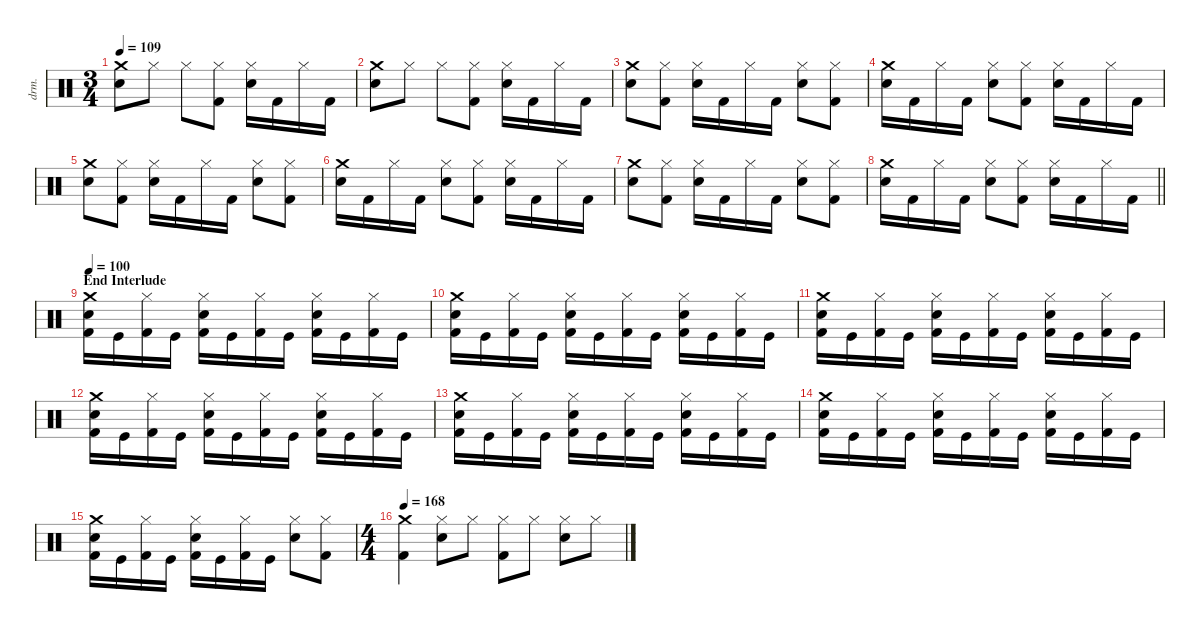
\defaultSystemsLayout 4
\hideDynamics
\bracketExtendMode nobrackets
\otherSystemsTrackNameOrientation horizontal
\track ("Drums" "drm.") {instrument percussion}
\staff {score}
\articulation defaults
\ts (3 4)
\tempo 109
\clef neutral
\ks c
("Snare (hit) 2" "Crash medium (hit)").8{dy fff} "Hi-Hat (closed)".8 "Hi-Hat (closed)".8 ("Kick (hit) 2" "Hi-Hat (closed)").8 ("Snare (hit) 2" "Hi-Hat (closed)").16 "Kick (hit) 2".16 "Hi-Hat (closed)".16 "Kick (hit) 2".16 |
("Snare (hit) 2" "Crash medium (hit)").8 "Hi-Hat (closed)".8 "Hi-Hat (closed)".8 ("Kick (hit) 2" "Hi-Hat (closed)").8 ("Snare (hit) 2" "Hi-Hat (closed)").16 "Kick (hit) 2".16 "Hi-Hat (closed)".16 "Kick (hit) 2".16 |
("Snare (hit) 2" "Crash medium (hit)").8 ("Hi-Hat (closed)" "Kick (hit) 2").8 ("Snare (hit) 2" "Hi-Hat (closed)").16 "Kick (hit) 2".16 "Hi-Hat (closed)".16 "Kick (hit) 2".16 ("Snare (hit) 2" "Hi-Hat (closed)").8 ("Hi-Hat (closed)" "Kick (hit) 2").8 |
("Snare (hit) 2" "Crash medium (hit)").16 "Kick (hit) 2".16 "Hi-Hat (closed)".16 "Kick (hit) 2".16 ("Snare (hit) 2" "Hi-Hat (closed)").8 ("Hi-Hat (closed)" "Kick (hit) 2").8 ("Snare (hit) 2" "Hi-Hat (closed)").16 "Kick (hit) 2".16 "Hi-Hat (closed)".16 "Kick (hit) 2".16 |
("Snare (hit) 2" "Crash medium (hit)").8 ("Hi-Hat (closed)" "Kick (hit) 2").8 ("Snare (hit) 2" "Hi-Hat (closed)").16 "Kick (hit) 2".16 "Hi-Hat (closed)".16 "Kick (hit) 2".16 ("Snare (hit) 2" "Hi-Hat (closed)").8 ("Hi-Hat (closed)" "Kick (hit) 2").8 |
("Snare (hit) 2" "Crash medium (hit)").16 "Kick (hit) 2".16 "Hi-Hat (closed)".16 "Kick (hit) 2".16 ("Snare (hit) 2" "Hi-Hat (closed)").8 ("Hi-Hat (closed)" "Kick (hit) 2").8 ("Snare (hit) 2" "Hi-Hat (closed)").16 "Kick (hit) 2".16 "Hi-Hat (closed)".16 "Kick (hit) 2".16 |
("Snare (hit) 2" "Crash medium (hit)").8 ("Hi-Hat (closed)" "Kick (hit) 2").8 ("Snare (hit) 2" "Hi-Hat (closed)").16 "Kick (hit) 2".16 "Hi-Hat (closed)".16 "Kick (hit) 2".16 ("Snare (hit) 2" "Hi-Hat (closed)").8 ("Hi-Hat (closed)" "Kick (hit) 2").8 |
\barLineRight lightlight
("Snare (hit) 2" "Crash medium (hit)").16 "Kick (hit) 2".16 "Hi-Hat (closed)".16 "Kick (hit) 2".16 ("Snare (hit) 2" "Hi-Hat (closed)").8 ("Hi-Hat (closed)" "Kick (hit) 2").8 ("Snare (hit) 2" "Hi-Hat (closed)").16 "Kick (hit) 2".16 "Hi-Hat (closed)".16 "Kick (hit) 2".16 |
\section ("" "End Interlude")
\tempo 100
("Kick (hit) 2" "Snare (hit) 2" "Crash medium (hit)").16 "Kick (hit)".16 ("Kick (hit) 2" "Hi-Hat (closed)").16 "Kick (hit)".16 ("Kick (hit) 2" "Snare (hit) 2" "Hi-Hat (closed)").16 "Kick (hit)".16 ("Kick (hit) 2" "Hi-Hat (closed)").16 "Kick (hit)".16 ("Kick (hit) 2" "Snare (hit) 2" "Hi-Hat (closed)").16 "Kick (hit)".16 ("Kick (hit) 2" "Hi-Hat (closed)").16 "Kick (hit)".16 |
("Kick (hit) 2" "Snare (hit) 2" "Crash medium (hit)").16 "Kick (hit)".16 ("Kick (hit) 2" "Hi-Hat (closed)").16 "Kick (hit)".16 ("Kick (hit) 2" "Snare (hit) 2" "Hi-Hat (closed)").16 "Kick (hit)".16 ("Kick (hit) 2" "Hi-Hat (closed)").16 "Kick (hit)".16 ("Kick (hit) 2" "Snare (hit) 2" "Hi-Hat (closed)").16 "Kick (hit)".16 ("Kick (hit) 2" "Hi-Hat (closed)").16 "Kick (hit)".16 |
("Kick (hit) 2" "Snare (hit) 2" "Crash medium (hit)").16 "Kick (hit)".16 ("Kick (hit) 2" "Hi-Hat (closed)").16 "Kick (hit)".16 ("Kick (hit) 2" "Snare (hit) 2" "Hi-Hat (closed)").16 "Kick (hit)".16 ("Kick (hit) 2" "Hi-Hat (closed)").16 "Kick (hit)".16 ("Kick (hit) 2" "Snare (hit) 2" "Hi-Hat (closed)").16 "Kick (hit)".16 ("Kick (hit) 2" "Hi-Hat (closed)").16 "Kick (hit)".16 |
("Kick (hit) 2" "Snare (hit) 2" "Crash medium (hit)").16 "Kick (hit)".16 ("Kick (hit) 2" "Hi-Hat (closed)").16 "Kick (hit)".16 ("Kick (hit) 2" "Snare (hit) 2" "Hi-Hat (closed)").16 "Kick (hit)".16 ("Kick (hit) 2" "Hi-Hat (closed)").16 "Kick (hit)".16 ("Kick (hit) 2" "Snare (hit) 2" "Hi-Hat (closed)").16 "Kick (hit)".16 ("Kick (hit) 2" "Hi-Hat (closed)").16 "Kick (hit)".16 |
("Kick (hit) 2" "Snare (hit) 2" "Crash medium (hit)").16 "Kick (hit)".16 ("Kick (hit) 2" "Hi-Hat (closed)").16 "Kick (hit)".16 ("Kick (hit) 2" "Snare (hit) 2" "Hi-Hat (closed)").16 "Kick (hit)".16 ("Kick (hit) 2" "Hi-Hat (closed)").16 "Kick (hit)".16 ("Kick (hit) 2" "Snare (hit) 2" "Hi-Hat (closed)").16 "Kick (hit)".16 ("Kick (hit) 2" "Hi-Hat (closed)").16 "Kick (hit)".16 |
("Kick (hit) 2" "Snare (hit) 2" "Crash medium (hit)").16 "Kick (hit)".16 ("Kick (hit) 2" "Hi-Hat (closed)").16 "Kick (hit)".16 ("Kick (hit) 2" "Snare (hit) 2" "Hi-Hat (closed)").16 "Kick (hit)".16 ("Kick (hit) 2" "Hi-Hat (closed)").16 "Kick (hit)".16 ("Kick (hit) 2" "Snare (hit) 2" "Hi-Hat (closed)").16 "Kick (hit)".16 ("Kick (hit) 2" "Hi-Hat (closed)").16 "Kick (hit)".16 |
("Kick (hit) 2" "Snare (hit) 2" "Crash medium (hit)").16 "Kick (hit)".16 ("Kick (hit) 2" "Hi-Hat (closed)").16 "Kick (hit)".16 ("Kick (hit) 2" "Snare (hit) 2" "Hi-Hat (closed)").16 "Kick (hit)".16 ("Kick (hit) 2" "Hi-Hat (closed)").16 "Kick (hit)".16 ("Snare (hit) 2" "Hi-Hat (closed)").8 ("Kick (hit) 2" "Hi-Hat (closed)").8 |
\ts (4 4)
\beaming (8 2 2 2 2)
\tempo 168
("Crash medium (hit)" "Kick (hit) 2").4 ("Hi-Hat (closed)" "Snare (hit) 2").8 "Hi-Hat (closed)".8 ("Kick (hit) 2" "Hi-Hat (closed)").8 "Hi-Hat (closed)".8 ("Snare (hit) 2" "Hi-Hat (closed)").8 "Hi-Hat (closed)".8
